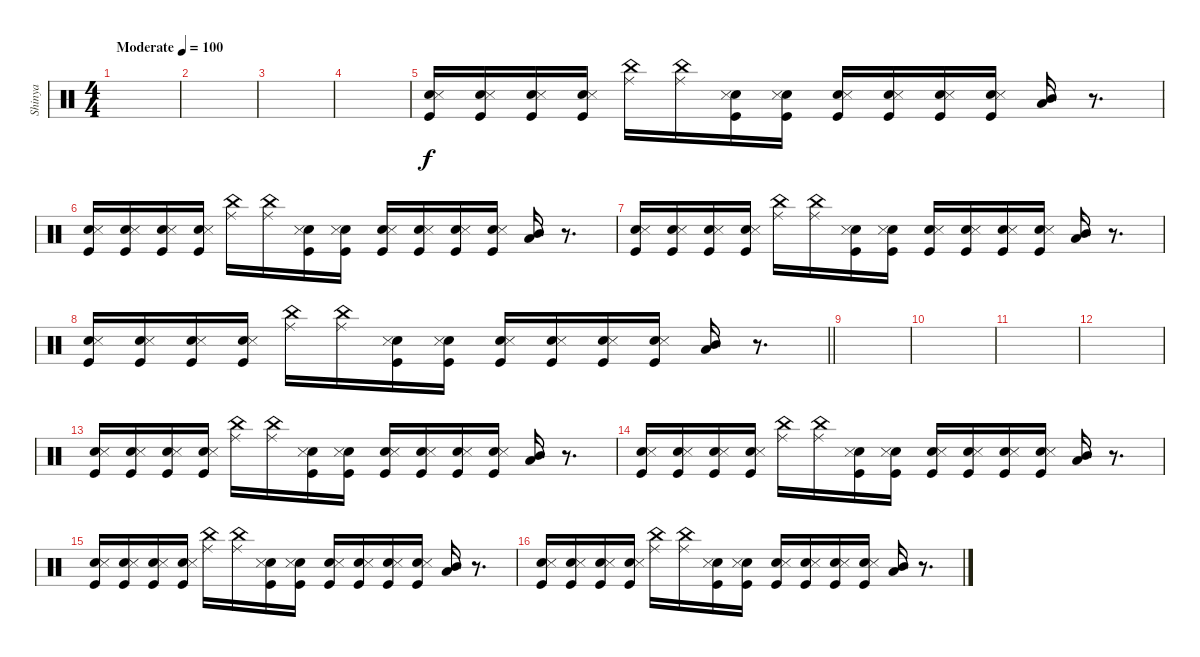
\track ("Shinya" "Shinya") {instrument percussion}
\staff {score}
\articulation defaults
\ts (4 4)
\tempo (100 "Moderate")
\clef neutral
\ks c
|
|
|
|
("Snare (hit) 2" "Snare (side stick) 3" "Kick (hit)").16 ("Snare (hit) 2" "Snare (side stick) 3" "Kick (hit)").16 ("Snare (hit) 2" "Snare (side stick) 3" "Kick (hit)").16 ("Snare (hit) 2" "Snare (side stick) 3" "Kick (hit)").16 ("Ride (middle)" "China (hit)").16 ("Ride (middle)" "China (hit)").16 ("Snare (hit) 2" "Snare (side stick) 3" "Kick (hit)").16 ("Snare (hit) 2" "Snare (side stick) 3" "Kick (hit)").16 ("Snare (hit) 2" "Snare (side stick) 3" "Kick (hit)").16 ("Snare (hit) 2" "Snare (side stick) 3" "Kick (hit)").16 ("Snare (hit) 2" "Snare (side stick) 3" "Kick (hit)").16 ("Snare (hit) 2" "Snare (side stick) 3" "Kick (hit)").16 ("Mid Tom (hit)" "Low Tom (hit)").16 r.8{d} |
("Snare (hit) 2" "Snare (side stick) 3" "Kick (hit)").16 ("Snare (hit) 2" "Snare (side stick) 3" "Kick (hit)").16 ("Snare (hit) 2" "Snare (side stick) 3" "Kick (hit)").16 ("Snare (hit) 2" "Snare (side stick) 3" "Kick (hit)").16 ("Ride (middle)" "China (hit)").16 ("Ride (middle)" "China (hit)").16 ("Snare (hit) 2" "Snare (side stick) 3" "Kick (hit)").16 ("Snare (hit) 2" "Snare (side stick) 3" "Kick (hit)").16 ("Snare (hit) 2" "Snare (side stick) 3" "Kick (hit)").16 ("Snare (hit) 2" "Snare (side stick) 3" "Kick (hit)").16 ("Snare (hit) 2" "Snare (side stick) 3" "Kick (hit)").16 ("Snare (hit) 2" "Snare (side stick) 3" "Kick (hit)").16 ("Mid Tom (hit)" "Low Tom (hit)").16 r.8{d} |
("Snare (hit) 2" "Snare (side stick) 3" "Kick (hit)").16 ("Snare (hit) 2" "Snare (side stick) 3" "Kick (hit)").16 ("Snare (hit) 2" "Snare (side stick) 3" "Kick (hit)").16 ("Snare (hit) 2" "Snare (side stick) 3" "Kick (hit)").16 ("Ride (middle)" "China (hit)").16 ("Ride (middle)" "China (hit)").16 ("Snare (hit) 2" "Snare (side stick) 3" "Kick (hit)").16 ("Snare (hit) 2" "Snare (side stick) 3" "Kick (hit)").16 ("Snare (hit) 2" "Snare (side stick) 3" "Kick (hit)").16 ("Snare (hit) 2" "Snare (side stick) 3" "Kick (hit)").16 ("Snare (hit) 2" "Snare (side stick) 3" "Kick (hit)").16 ("Snare (hit) 2" "Snare (side stick) 3" "Kick (hit)").16 ("Mid Tom (hit)" "Low Tom (hit)").16 r.8{d} |
\barLineRight lightlight
("Snare (hit) 2" "Snare (side stick) 3" "Kick (hit)").16 ("Snare (hit) 2" "Snare (side stick) 3" "Kick (hit)").16 ("Snare (hit) 2" "Snare (side stick) 3" "Kick (hit)").16 ("Snare (hit) 2" "Snare (side stick) 3" "Kick (hit)").16 ("Ride (middle)" "China (hit)").16 ("Ride (middle)" "China (hit)").16 ("Snare (hit) 2" "Snare (side stick) 3" "Kick (hit)").16 ("Snare (hit) 2" "Snare (side stick) 3" "Kick (hit)").16 ("Snare (hit) 2" "Snare (side stick) 3" "Kick (hit)").16 ("Snare (hit) 2" "Snare (side stick) 3" "Kick (hit)").16 ("Snare (hit) 2" "Snare (side stick) 3" "Kick (hit)").16 ("Snare (hit) 2" "Snare (side stick) 3" "Kick (hit)").16 ("Mid Tom (hit)" "Low Tom (hit)").16 r.8{d} |
|
|
|
|
("Snare (hit) 2" "Snare (side stick) 3" "Kick (hit)").16 ("Snare (hit) 2" "Snare (side stick) 3" "Kick (hit)").16 ("Snare (hit) 2" "Snare (side stick) 3" "Kick (hit)").16 ("Snare (hit) 2" "Snare (side stick) 3" "Kick (hit)").16 ("Ride (middle)" "China (hit)").16 ("Ride (middle)" "China (hit)").16 ("Snare (hit) 2" "Snare (side stick) 3" "Kick (hit)").16 ("Snare (hit) 2" "Snare (side stick) 3" "Kick (hit)").16 ("Snare (hit) 2" "Snare (side stick) 3" "Kick (hit)").16 ("Snare (hit) 2" "Snare (side stick) 3" "Kick (hit)").16 ("Snare (hit) 2" "Snare (side stick) 3" "Kick (hit)").16 ("Snare (hit) 2" "Snare (side stick) 3" "Kick (hit)").16 ("Mid Tom (hit)" "Low Tom (hit)").16 r.8{d} |
("Snare (hit) 2" "Snare (side stick) 3" "Kick (hit)").16 ("Snare (hit) 2" "Snare (side stick) 3" "Kick (hit)").16 ("Snare (hit) 2" "Snare (side stick) 3" "Kick (hit)").16 ("Snare (hit) 2" "Snare (side stick) 3" "Kick (hit)").16 ("Ride (middle)" "China (hit)").16 ("Ride (middle)" "China (hit)").16 ("Snare (hit) 2" "Snare (side stick) 3" "Kick (hit)").16 ("Snare (hit) 2" "Snare (side stick) 3" "Kick (hit)").16 ("Snare (hit) 2" "Snare (side stick) 3" "Kick (hit)").16 ("Snare (hit) 2" "Snare (side stick) 3" "Kick (hit)").16 ("Snare (hit) 2" "Snare (side stick) 3" "Kick (hit)").16 ("Snare (hit) 2" "Snare (side stick) 3" "Kick (hit)").16 ("Mid Tom (hit)" "Low Tom (hit)").16 r.8{d} |
("Snare (hit) 2" "Snare (side stick) 3" "Kick (hit)").16 ("Snare (hit) 2" "Snare (side stick) 3" "Kick (hit)").16 ("Snare (hit) 2" "Snare (side stick) 3" "Kick (hit)").16 ("Snare (hit) 2" "Snare (side stick) 3" "Kick (hit)").16 ("Ride (middle)" "China (hit)").16 ("Ride (middle)" "China (hit)").16 ("Snare (hit) 2" "Snare (side stick) 3" "Kick (hit)").16 ("Snare (hit) 2" "Snare (side stick) 3" "Kick (hit)").16 ("Snare (hit) 2" "Snare (side stick) 3" "Kick (hit)").16 ("Snare (hit) 2" "Snare (side stick) 3" "Kick (hit)").16 ("Snare (hit) 2" "Snare (side stick) 3" "Kick (hit)").16 ("Snare (hit) 2" "Snare (side stick) 3" "Kick (hit)").16 ("Mid Tom (hit)" "Low Tom (hit)").16 r.8{d} |
("Snare (hit) 2" "Snare (side stick) 3" "Kick (hit)").16 ("Snare (hit) 2" "Snare (side stick) 3" "Kick (hit)").16 ("Snare (hit) 2" "Snare (side stick) 3" "Kick (hit)").16 ("Snare (hit) 2" "Snare (side stick) 3" "Kick (hit)").16 ("Ride (middle)" "China (hit)").16 ("Ride (middle)" "China (hit)").16 ("Snare (hit) 2" "Snare (side stick) 3" "Kick (hit)").16 ("Snare (hit) 2" "Snare (side stick) 3" "Kick (hit)").16 ("Snare (hit) 2" "Snare (side stick) 3" "Kick (hit)").16 ("Snare (hit) 2" "Snare (side stick) 3" "Kick (hit)").16 ("Snare (hit) 2" "Snare (side stick) 3" "Kick (hit)").16 ("Snare (hit) 2" "Snare (side stick) 3" "Kick (hit)").16 ("Mid Tom (hit)" "Low Tom (hit)").16 r.8{d}
